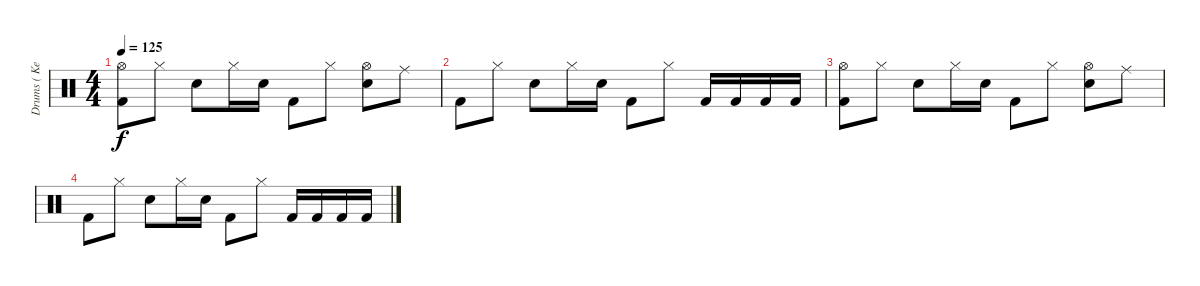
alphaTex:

\track ("Drums ( Ken Jay )" "Drums ( Ke") {instrument percussion}
\staff {score}
\articulation defaults
\ts (4 4)
\tempo 125
\clef neutral
\ks c
("Hi-Hat (open)" "Kick (hit) 2").8{dy f} "Hi-Hat (closed)".8 "Snare (hit) 2".8 "Hi-Hat (closed)".16 "Snare (hit) 2".16 "Kick (hit) 2".8 "Hi-Hat (closed)".8 ("Hi-Hat (open)" "Snare (hit) 2").8 "Ride (middle)".8 |
"Kick (hit) 2".8 "Hi-Hat (closed)".8 "Snare (hit) 2".8 "Hi-Hat (closed)".16 "Snare (hit) 2".16 "Kick (hit) 2".8 "Hi-Hat (closed)".8 "Kick (hit) 2".16 "Kick (hit) 2".16 "Kick (hit) 2".16 "Kick (hit) 2".16 |
("Hi-Hat (open)" "Kick (hit) 2").8 "Hi-Hat (closed)".8 "Snare (hit) 2".8 "Hi-Hat (closed)".16 "Snare (hit) 2".16 "Kick (hit) 2".8 "Hi-Hat (closed)".8 ("Hi-Hat (open)" "Snare (hit) 2").8 "Ride (middle)".8 |
"Kick (hit) 2".8 "Hi-Hat (closed)".8 "Snare (hit) 2".8 "Hi-Hat (closed)".16 "Snare (hit) 2".16 "Kick (hit) 2".8 "Hi-Hat (closed)".8 "Kick (hit) 2".16 "Kick (hit) 2".16 "Kick (hit) 2".16 "Kick (hit) 2".16
